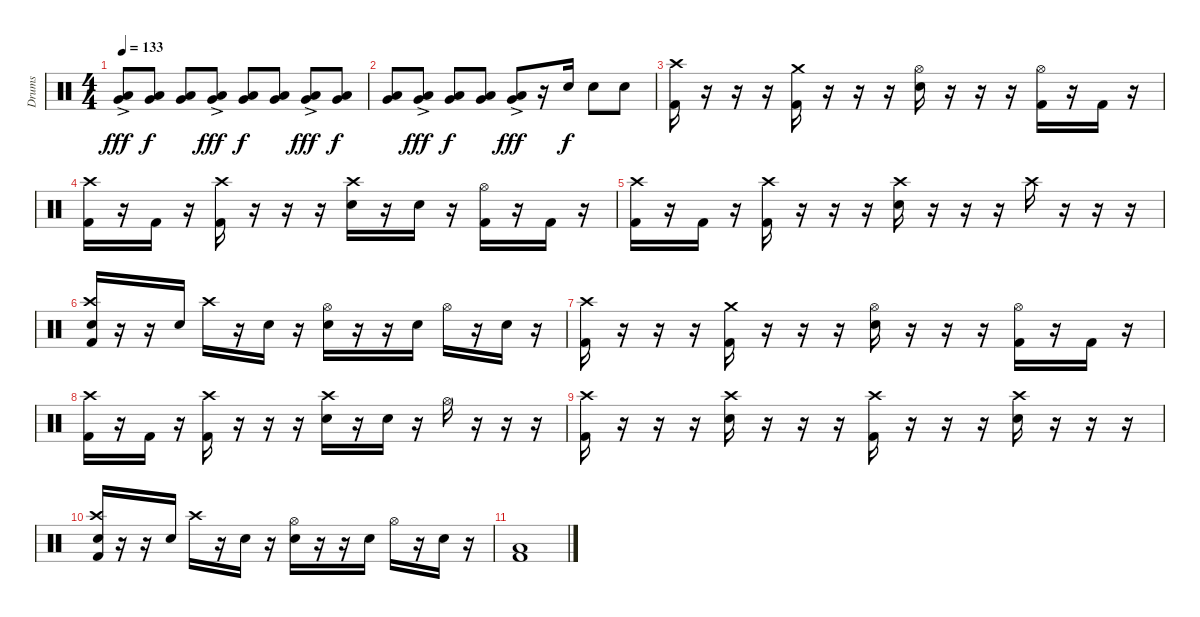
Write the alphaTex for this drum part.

\track ("Drums" "Drums") {instrument percussion}
\staff {score}
\articulation defaults
\ts (4 4)
\tempo 133
\clef neutral
\ks c
("Very Low Tom (hit)"{ac} "Low Floor Tom (hit)"{ac}).8{dy fff volume 2} ("Very Low Tom (hit)" "Low Floor Tom (hit)").8{dy f volume 14} ("Very Low Tom (hit)" "Low Floor Tom (hit)").8 ("Very Low Tom (hit)"{ac} "Low Floor Tom (hit)"{ac}).8{dy fff} ("Very Low Tom (hit)" "Low Floor Tom (hit)").8{dy f} ("Very Low Tom (hit)" "Low Floor Tom (hit)").8 ("Very Low Tom (hit)"{ac} "Low Floor Tom (hit)"{ac}).8{dy fff} ("Very Low Tom (hit)" "Low Floor Tom (hit)").8{dy f} |
("Very Low Tom (hit)" "Low Floor Tom (hit)").8 ("Very Low Tom (hit)"{ac} "Low Floor Tom (hit)"{ac}).8{dy fff} ("Very Low Tom (hit)" "Low Floor Tom (hit)").8{dy f} ("Very Low Tom (hit)" "Low Floor Tom (hit)").8 ("Very Low Tom (hit)"{ac} "Low Floor Tom (hit)"{ac}).8{dy fff} r.16 "Snare (hit) 2".16{dy f} "Snare (hit) 2".8 "Snare (hit) 2".8 |
("Crash high (hit)" "Kick (hit) 2").16 r.16 r.16 r.16 ("Crash medium (hit)" "Kick (hit) 2").16 r.16 r.16 r.16 ("Hi-Hat (open)" "Snare (hit) 2").16 r.16 r.16 r.16 ("Hi-Hat (open)" "Kick (hit) 2").16 r.16 "Kick (hit) 2".16 r.16 |
("Crash high (hit)" "Kick (hit) 2").16 r.16 "Kick (hit) 2".16 r.16 ("Crash high (hit)" "Kick (hit) 2").16 r.16 r.16 r.16 ("Crash high (hit)" "Snare (hit) 2").16 r.16 "Snare (hit) 2".16 r.16 ("Hi-Hat (open)" "Kick (hit) 2").16 r.16 "Kick (hit) 2".16 r.16 |
("Crash high (hit)" "Kick (hit) 2").16 r.16 "Kick (hit) 2".16 r.16 ("Crash high (hit)" "Kick (hit) 2").16 r.16 r.16 r.16 ("Crash high (hit)" "Snare (hit) 2").16 r.16 r.16 r.16 "Crash high (hit)".16 r.16 r.16 r.16 |
("Crash high (hit)" "Snare (hit) 2" "Kick (hit) 2").16 r.16 r.16 "Snare (hit) 2".16 "Crash high (hit)".16 r.16 "Snare (hit) 2".16 r.16 ("Hi-Hat (open)" "Snare (hit) 2").16 r.16 r.16 "Snare (hit) 2".16 "Hi-Hat (open)".16 r.16 "Snare (hit) 2".16 r.16 |
("Crash high (hit)" "Kick (hit) 2").16 r.16 r.16 r.16 ("Crash medium (hit)" "Kick (hit) 2").16 r.16 r.16 r.16 ("Hi-Hat (open)" "Snare (hit) 2").16 r.16 r.16 r.16 ("Hi-Hat (open)" "Kick (hit) 2").16 r.16 "Kick (hit) 2".16 r.16 |
("Crash high (hit)" "Kick (hit) 2").16 r.16 "Kick (hit) 2".16 r.16 ("Crash high (hit)" "Kick (hit) 2").16 r.16 r.16 r.16 ("Crash high (hit)" "Snare (hit) 2").16 r.16 "Snare (hit) 2".16 r.16 "Hi-Hat (open)".16 r.16 r.16 r.16 |
("Crash high (hit)" "Kick (hit) 2").16 r.16 r.16 r.16 ("Crash high (hit)" "Snare (hit) 2").16 r.16 r.16 r.16 ("Crash high (hit)" "Kick (hit) 2").16 r.16 r.16 r.16 ("Crash high (hit)" "Snare (hit) 2").16 r.16 r.16 r.16 |
("Crash high (hit)" "Snare (hit) 2" "Kick (hit) 2").16 r.16 r.16 "Snare (hit) 2".16 "Crash high (hit)".16 r.16 "Snare (hit) 2".16 r.16 ("Hi-Hat (open)" "Snare (hit) 2").16 r.16 r.16 "Snare (hit) 2".16 "Hi-Hat (open)".16 r.16 "Snare (hit) 2".16 r.16 |
("Low Floor Tom (hit)" "Kick (hit) 2").1
